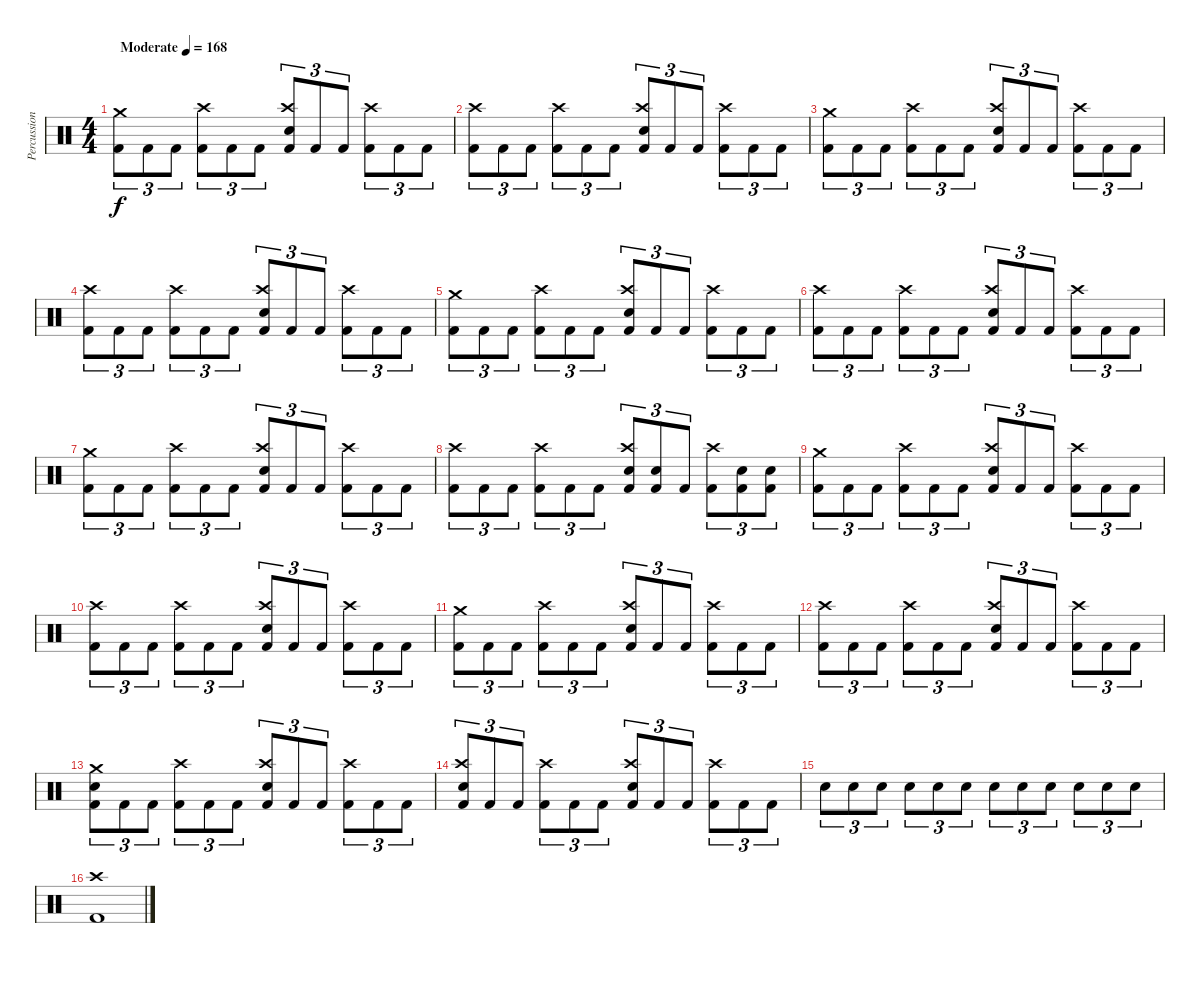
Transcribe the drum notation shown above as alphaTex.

\track ("Percussion" "Percussion") {instrument percussion}
\staff {score}
\articulation defaults
\ts (4 4)
\tempo (168 "Moderate")
\clef neutral
\ks c
("Crash medium (hit)" "Kick (hit) 2").8{tu (3 2) dy f} "Kick (hit) 2".8{tu (3 2)} "Kick (hit) 2".8{tu (3 2)} ("Crash high (hit)" "Kick (hit) 2").8{tu (3 2)} "Kick (hit) 2".8{tu (3 2)} "Kick (hit) 2".8{tu (3 2)} ("Crash high (hit)" "Electric Snare (hit)" "Kick (hit) 2").8{tu (3 2)} "Kick (hit) 2".8{tu (3 2)} "Kick (hit) 2".8{tu (3 2)} ("Crash high (hit)" "Kick (hit) 2").8{tu (3 2)} "Kick (hit) 2".8{tu (3 2)} "Kick (hit) 2".8{tu (3 2)} |
("Crash high (hit)" "Kick (hit) 2").8{tu (3 2)} "Kick (hit) 2".8{tu (3 2)} "Kick (hit) 2".8{tu (3 2)} ("Crash high (hit)" "Kick (hit) 2").8{tu (3 2)} "Kick (hit) 2".8{tu (3 2)} "Kick (hit) 2".8{tu (3 2)} ("Crash high (hit)" "Electric Snare (hit)" "Kick (hit) 2").8{tu (3 2)} "Kick (hit) 2".8{tu (3 2)} "Kick (hit) 2".8{tu (3 2)} ("Crash high (hit)" "Kick (hit) 2").8{tu (3 2)} "Kick (hit) 2".8{tu (3 2)} "Kick (hit) 2".8{tu (3 2)} |
("Crash medium (hit)" "Kick (hit) 2").8{tu (3 2)} "Kick (hit) 2".8{tu (3 2)} "Kick (hit) 2".8{tu (3 2)} ("Crash high (hit)" "Kick (hit) 2").8{tu (3 2)} "Kick (hit) 2".8{tu (3 2)} "Kick (hit) 2".8{tu (3 2)} ("Crash high (hit)" "Electric Snare (hit)" "Kick (hit) 2").8{tu (3 2)} "Kick (hit) 2".8{tu (3 2)} "Kick (hit) 2".8{tu (3 2)} ("Crash high (hit)" "Kick (hit) 2").8{tu (3 2)} "Kick (hit) 2".8{tu (3 2)} "Kick (hit) 2".8{tu (3 2)} |
("Crash high (hit)" "Kick (hit) 2").8{tu (3 2)} "Kick (hit) 2".8{tu (3 2)} "Kick (hit) 2".8{tu (3 2)} ("Crash high (hit)" "Kick (hit) 2").8{tu (3 2)} "Kick (hit) 2".8{tu (3 2)} "Kick (hit) 2".8{tu (3 2)} ("Crash high (hit)" "Electric Snare (hit)" "Kick (hit) 2").8{tu (3 2)} "Kick (hit) 2".8{tu (3 2)} "Kick (hit) 2".8{tu (3 2)} ("Crash high (hit)" "Kick (hit) 2").8{tu (3 2)} "Kick (hit) 2".8{tu (3 2)} "Kick (hit) 2".8{tu (3 2)} |
("Crash medium (hit)" "Kick (hit) 2").8{tu (3 2)} "Kick (hit) 2".8{tu (3 2)} "Kick (hit) 2".8{tu (3 2)} ("Crash high (hit)" "Kick (hit) 2").8{tu (3 2)} "Kick (hit) 2".8{tu (3 2)} "Kick (hit) 2".8{tu (3 2)} ("Crash high (hit)" "Electric Snare (hit)" "Kick (hit) 2").8{tu (3 2)} "Kick (hit) 2".8{tu (3 2)} "Kick (hit) 2".8{tu (3 2)} ("Crash high (hit)" "Kick (hit) 2").8{tu (3 2)} "Kick (hit) 2".8{tu (3 2)} "Kick (hit) 2".8{tu (3 2)} |
("Crash high (hit)" "Kick (hit) 2").8{tu (3 2)} "Kick (hit) 2".8{tu (3 2)} "Kick (hit) 2".8{tu (3 2)} ("Crash high (hit)" "Kick (hit) 2").8{tu (3 2)} "Kick (hit) 2".8{tu (3 2)} "Kick (hit) 2".8{tu (3 2)} ("Crash high (hit)" "Electric Snare (hit)" "Kick (hit) 2").8{tu (3 2)} "Kick (hit) 2".8{tu (3 2)} "Kick (hit) 2".8{tu (3 2)} ("Crash high (hit)" "Kick (hit) 2").8{tu (3 2)} "Kick (hit) 2".8{tu (3 2)} "Kick (hit) 2".8{tu (3 2)} |
("Crash medium (hit)" "Kick (hit) 2").8{tu (3 2)} "Kick (hit) 2".8{tu (3 2)} "Kick (hit) 2".8{tu (3 2)} ("Crash high (hit)" "Kick (hit) 2").8{tu (3 2)} "Kick (hit) 2".8{tu (3 2)} "Kick (hit) 2".8{tu (3 2)} ("Crash high (hit)" "Electric Snare (hit)" "Kick (hit) 2").8{tu (3 2)} "Kick (hit) 2".8{tu (3 2)} "Kick (hit) 2".8{tu (3 2)} ("Crash high (hit)" "Kick (hit) 2").8{tu (3 2)} "Kick (hit) 2".8{tu (3 2)} "Kick (hit) 2".8{tu (3 2)} |
("Crash high (hit)" "Kick (hit) 2").8{tu (3 2)} "Kick (hit) 2".8{tu (3 2)} "Kick (hit) 2".8{tu (3 2)} ("Crash high (hit)" "Kick (hit) 2").8{tu (3 2)} "Kick (hit) 2".8{tu (3 2)} "Kick (hit) 2".8{tu (3 2)} ("Crash high (hit)" "Electric Snare (hit)" "Kick (hit) 2").8{tu (3 2)} ("Electric Snare (hit)" "Kick (hit) 2").8{tu (3 2)} "Kick (hit) 2".8{tu (3 2)} ("Crash high (hit)" "Kick (hit) 2").8{tu (3 2)} ("Electric Snare (hit)" "Kick (hit) 2").8{tu (3 2)} ("Electric Snare (hit)" "Kick (hit) 2").8{tu (3 2)} |
("Crash medium (hit)" "Kick (hit) 2").8{tu (3 2)} "Kick (hit) 2".8{tu (3 2)} "Kick (hit) 2".8{tu (3 2)} ("Crash high (hit)" "Kick (hit) 2").8{tu (3 2)} "Kick (hit) 2".8{tu (3 2)} "Kick (hit) 2".8{tu (3 2)} ("Crash high (hit)" "Electric Snare (hit)" "Kick (hit) 2").8{tu (3 2)} "Kick (hit) 2".8{tu (3 2)} "Kick (hit) 2".8{tu (3 2)} ("Crash high (hit)" "Kick (hit) 2").8{tu (3 2)} "Kick (hit) 2".8{tu (3 2)} "Kick (hit) 2".8{tu (3 2)} |
("Crash high (hit)" "Kick (hit) 2").8{tu (3 2)} "Kick (hit) 2".8{tu (3 2)} "Kick (hit) 2".8{tu (3 2)} ("Crash high (hit)" "Kick (hit) 2").8{tu (3 2)} "Kick (hit) 2".8{tu (3 2)} "Kick (hit) 2".8{tu (3 2)} ("Crash high (hit)" "Electric Snare (hit)" "Kick (hit) 2").8{tu (3 2)} "Kick (hit) 2".8{tu (3 2)} "Kick (hit) 2".8{tu (3 2)} ("Crash high (hit)" "Kick (hit) 2").8{tu (3 2)} "Kick (hit) 2".8{tu (3 2)} "Kick (hit) 2".8{tu (3 2)} |
("Crash medium (hit)" "Kick (hit) 2").8{tu (3 2)} "Kick (hit) 2".8{tu (3 2)} "Kick (hit) 2".8{tu (3 2)} ("Crash high (hit)" "Kick (hit) 2").8{tu (3 2)} "Kick (hit) 2".8{tu (3 2)} "Kick (hit) 2".8{tu (3 2)} ("Crash high (hit)" "Electric Snare (hit)" "Kick (hit) 2").8{tu (3 2)} "Kick (hit) 2".8{tu (3 2)} "Kick (hit) 2".8{tu (3 2)} ("Crash high (hit)" "Kick (hit) 2").8{tu (3 2)} "Kick (hit) 2".8{tu (3 2)} "Kick (hit) 2".8{tu (3 2)} |
("Crash high (hit)" "Kick (hit) 2").8{tu (3 2)} "Kick (hit) 2".8{tu (3 2)} "Kick (hit) 2".8{tu (3 2)} ("Crash high (hit)" "Kick (hit) 2").8{tu (3 2)} "Kick (hit) 2".8{tu (3 2)} "Kick (hit) 2".8{tu (3 2)} ("Crash high (hit)" "Electric Snare (hit)" "Kick (hit) 2").8{tu (3 2)} "Kick (hit) 2".8{tu (3 2)} "Kick (hit) 2".8{tu (3 2)} ("Crash high (hit)" "Kick (hit) 2").8{tu (3 2)} "Kick (hit) 2".8{tu (3 2)} "Kick (hit) 2".8{tu (3 2)} |
("Crash medium (hit)" "Electric Snare (hit)" "Kick (hit) 2").8{tu (3 2)} "Kick (hit) 2".8{tu (3 2)} "Kick (hit) 2".8{tu (3 2)} ("Crash high (hit)" "Kick (hit) 2").8{tu (3 2)} "Kick (hit) 2".8{tu (3 2)} "Kick (hit) 2".8{tu (3 2)} ("Crash high (hit)" "Electric Snare (hit)" "Kick (hit) 2").8{tu (3 2)} "Kick (hit) 2".8{tu (3 2)} "Kick (hit) 2".8{tu (3 2)} ("Crash high (hit)" "Kick (hit) 2").8{tu (3 2)} "Kick (hit) 2".8{tu (3 2)} "Kick (hit) 2".8{tu (3 2)} |
("Crash high (hit)" "Electric Snare (hit)" "Kick (hit) 2").8{tu (3 2)} "Kick (hit) 2".8{tu (3 2)} "Kick (hit) 2".8{tu (3 2)} ("Crash high (hit)" "Kick (hit) 2").8{tu (3 2)} "Kick (hit) 2".8{tu (3 2)} "Kick (hit) 2".8{tu (3 2)} ("Crash high (hit)" "Electric Snare (hit)" "Kick (hit) 2").8{tu (3 2)} "Kick (hit) 2".8{tu (3 2)} "Kick (hit) 2".8{tu (3 2)} ("Crash high (hit)" "Kick (hit) 2").8{tu (3 2)} "Kick (hit) 2".8{tu (3 2)} "Kick (hit) 2".8{tu (3 2)} |
"Electric Snare (hit)".8{tu (3 2)} "Electric Snare (hit)".8{tu (3 2)} "Electric Snare (hit)".8{tu (3 2)} "Electric Snare (hit)".8{tu (3 2)} "Electric Snare (hit)".8{tu (3 2)} "Electric Snare (hit)".8{tu (3 2)} "Electric Snare (hit)".8{tu (3 2)} "Electric Snare (hit)".8{tu (3 2)} "Electric Snare (hit)".8{tu (3 2)} "Electric Snare (hit)".8{tu (3 2)} "Electric Snare (hit)".8{tu (3 2)} "Electric Snare (hit)".8{tu (3 2)} |
("Crash high (hit)" "Kick (hit) 2").1
